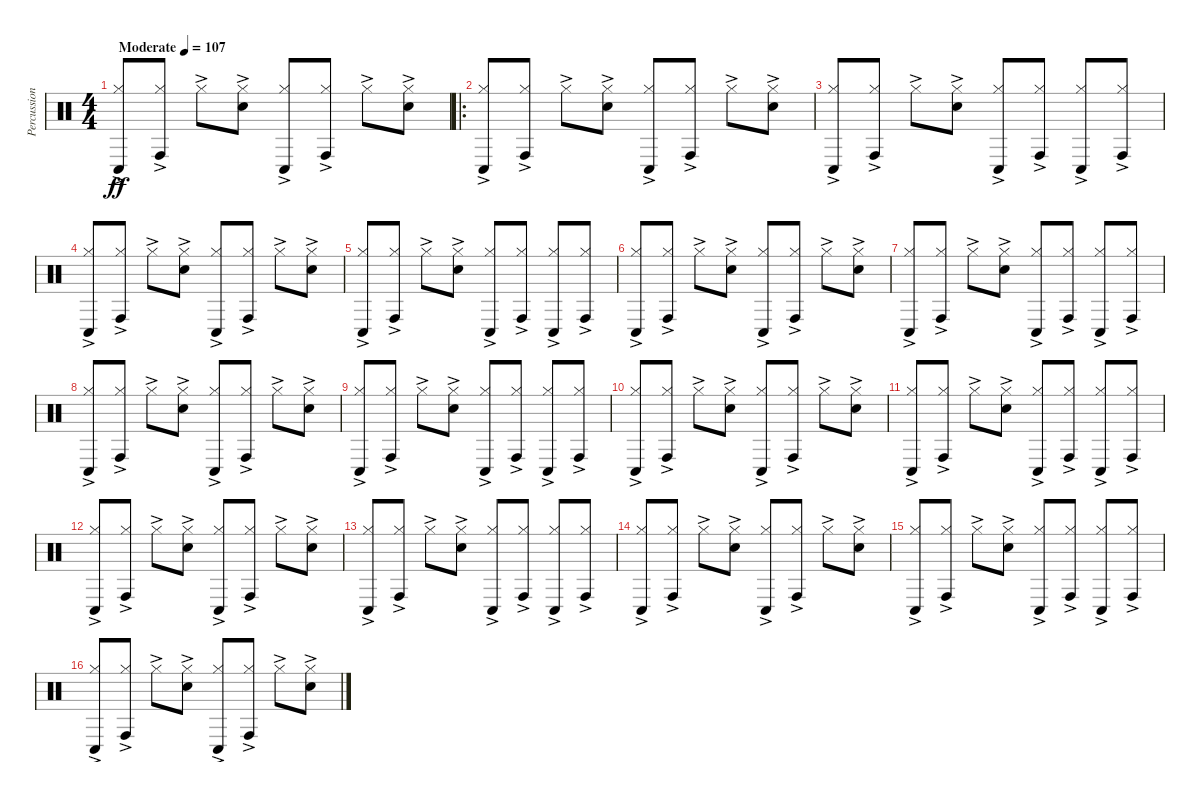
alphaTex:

\track ("Percussion" "Percussion") {instrument percussion}
\staff {score}
\articulation defaults
\ts (4 4)
\tempo (107 "Moderate")
\clef neutral
\ks c
("Hi-Hat (closed)"{ac} "Conga low (hit)"{ac}).8{dy ff} ("Hi-Hat (closed)"{ac} "Conga high (hit)"{ac}).8 "Hi-Hat (closed)"{ac}.8 ("Hi-Hat (closed)"{ac} "Hand Clap (hit)"{ac}).8 ("Hi-Hat (closed)"{ac} "Conga low (hit)"{ac}).8 ("Hi-Hat (closed)"{ac} "Conga high (hit)"{ac}).8 "Hi-Hat (closed)"{ac}.8 ("Hi-Hat (closed)"{ac} "Hand Clap (hit)"{ac}).8 |
\ro
("Hi-Hat (closed)"{ac} "Conga low (hit)"{ac}).8 ("Hi-Hat (closed)"{ac} "Conga high (hit)"{ac}).8 "Hi-Hat (closed)"{ac}.8 ("Hi-Hat (closed)"{ac} "Hand Clap (hit)"{ac}).8 ("Hi-Hat (closed)"{ac} "Conga low (hit)"{ac}).8 ("Hi-Hat (closed)"{ac} "Conga high (hit)"{ac}).8 "Hi-Hat (closed)"{ac}.8 ("Hi-Hat (closed)"{ac} "Hand Clap (hit)"{ac}).8 |
("Hi-Hat (closed)"{ac} "Conga low (hit)"{ac}).8 ("Hi-Hat (closed)"{ac} "Conga high (hit)"{ac}).8 "Hi-Hat (closed)"{ac}.8 ("Hi-Hat (closed)"{ac} "Hand Clap (hit)"{ac}).8 ("Hi-Hat (closed)"{ac} "Conga low (hit)"{ac}).8 ("Hi-Hat (closed)"{ac} "Conga high (hit)"{ac}).8 ("Hi-Hat (closed)"{ac} "Conga low (hit)"{ac}).8 ("Hi-Hat (closed)"{ac} "Conga high (hit)"{ac}).8 |
("Hi-Hat (closed)"{ac} "Conga low (hit)"{ac}).8 ("Hi-Hat (closed)"{ac} "Conga high (hit)"{ac}).8 "Hi-Hat (closed)"{ac}.8 ("Hi-Hat (closed)"{ac} "Hand Clap (hit)"{ac}).8 ("Hi-Hat (closed)"{ac} "Conga low (hit)"{ac}).8 ("Hi-Hat (closed)"{ac} "Conga high (hit)"{ac}).8 "Hi-Hat (closed)"{ac}.8 ("Hi-Hat (closed)"{ac} "Hand Clap (hit)"{ac}).8 |
("Hi-Hat (closed)"{ac} "Conga low (hit)"{ac}).8 ("Hi-Hat (closed)"{ac} "Conga high (hit)"{ac}).8 "Hi-Hat (closed)"{ac}.8 ("Hi-Hat (closed)"{ac} "Hand Clap (hit)"{ac}).8 ("Hi-Hat (closed)"{ac} "Conga low (hit)"{ac}).8 ("Hi-Hat (closed)"{ac} "Conga high (hit)"{ac}).8 ("Hi-Hat (closed)"{ac} "Conga low (hit)"{ac}).8 ("Hi-Hat (closed)"{ac} "Conga high (hit)"{ac}).8 |
("Hi-Hat (closed)"{ac} "Conga low (hit)"{ac}).8 ("Hi-Hat (closed)"{ac} "Conga high (hit)"{ac}).8 "Hi-Hat (closed)"{ac}.8 ("Hi-Hat (closed)"{ac} "Hand Clap (hit)"{ac}).8 ("Hi-Hat (closed)"{ac} "Conga low (hit)"{ac}).8 ("Hi-Hat (closed)"{ac} "Conga high (hit)"{ac}).8 "Hi-Hat (closed)"{ac}.8 ("Hi-Hat (closed)"{ac} "Hand Clap (hit)"{ac}).8 |
("Hi-Hat (closed)"{ac} "Conga low (hit)"{ac}).8 ("Hi-Hat (closed)"{ac} "Conga high (hit)"{ac}).8 "Hi-Hat (closed)"{ac}.8 ("Hi-Hat (closed)"{ac} "Hand Clap (hit)"{ac}).8 ("Hi-Hat (closed)"{ac} "Conga low (hit)"{ac}).8 ("Hi-Hat (closed)"{ac} "Conga high (hit)"{ac}).8 ("Hi-Hat (closed)"{ac} "Conga low (hit)"{ac}).8 ("Hi-Hat (closed)"{ac} "Conga high (hit)"{ac}).8 |
("Hi-Hat (closed)"{ac} "Conga low (hit)"{ac}).8 ("Hi-Hat (closed)"{ac} "Conga high (hit)"{ac}).8 "Hi-Hat (closed)"{ac}.8 ("Hi-Hat (closed)"{ac} "Hand Clap (hit)"{ac}).8 ("Hi-Hat (closed)"{ac} "Conga low (hit)"{ac}).8 ("Hi-Hat (closed)"{ac} "Conga high (hit)"{ac}).8 "Hi-Hat (closed)"{ac}.8 ("Hi-Hat (closed)"{ac} "Hand Clap (hit)"{ac}).8 |
("Hi-Hat (closed)"{ac} "Conga low (hit)"{ac}).8 ("Hi-Hat (closed)"{ac} "Conga high (hit)"{ac}).8 "Hi-Hat (closed)"{ac}.8 ("Hi-Hat (closed)"{ac} "Hand Clap (hit)"{ac}).8 ("Hi-Hat (closed)"{ac} "Conga low (hit)"{ac}).8 ("Hi-Hat (closed)"{ac} "Conga high (hit)"{ac}).8 ("Hi-Hat (closed)"{ac} "Conga low (hit)"{ac}).8 ("Hi-Hat (closed)"{ac} "Conga high (hit)"{ac}).8 |
("Hi-Hat (closed)"{ac} "Conga low (hit)"{ac}).8 ("Hi-Hat (closed)"{ac} "Conga high (hit)"{ac}).8 "Hi-Hat (closed)"{ac}.8 ("Hi-Hat (closed)"{ac} "Hand Clap (hit)"{ac}).8 ("Hi-Hat (closed)"{ac} "Conga low (hit)"{ac}).8 ("Hi-Hat (closed)"{ac} "Conga high (hit)"{ac}).8 "Hi-Hat (closed)"{ac}.8 ("Hi-Hat (closed)"{ac} "Hand Clap (hit)"{ac}).8 |
("Hi-Hat (closed)"{ac} "Conga low (hit)"{ac}).8 ("Hi-Hat (closed)"{ac} "Conga high (hit)"{ac}).8 "Hi-Hat (closed)"{ac}.8 ("Hi-Hat (closed)"{ac} "Hand Clap (hit)"{ac}).8 ("Hi-Hat (closed)"{ac} "Conga low (hit)"{ac}).8 ("Hi-Hat (closed)"{ac} "Conga high (hit)"{ac}).8 ("Hi-Hat (closed)"{ac} "Conga low (hit)"{ac}).8 ("Hi-Hat (closed)"{ac} "Conga high (hit)"{ac}).8 |
("Hi-Hat (closed)"{ac} "Conga low (hit)"{ac}).8 ("Hi-Hat (closed)"{ac} "Conga high (hit)"{ac}).8 "Hi-Hat (closed)"{ac}.8 ("Hi-Hat (closed)"{ac} "Hand Clap (hit)"{ac}).8 ("Hi-Hat (closed)"{ac} "Conga low (hit)"{ac}).8 ("Hi-Hat (closed)"{ac} "Conga high (hit)"{ac}).8 "Hi-Hat (closed)"{ac}.8 ("Hi-Hat (closed)"{ac} "Hand Clap (hit)"{ac}).8 |
("Hi-Hat (closed)"{ac} "Conga low (hit)"{ac}).8 ("Hi-Hat (closed)"{ac} "Conga high (hit)"{ac}).8 "Hi-Hat (closed)"{ac}.8 ("Hi-Hat (closed)"{ac} "Hand Clap (hit)"{ac}).8 ("Hi-Hat (closed)"{ac} "Conga low (hit)"{ac}).8 ("Hi-Hat (closed)"{ac} "Conga high (hit)"{ac}).8 ("Hi-Hat (closed)"{ac} "Conga low (hit)"{ac}).8 ("Hi-Hat (closed)"{ac} "Conga high (hit)"{ac}).8 |
("Hi-Hat (closed)"{ac} "Conga low (hit)"{ac}).8 ("Hi-Hat (closed)"{ac} "Conga high (hit)"{ac}).8 "Hi-Hat (closed)"{ac}.8 ("Hi-Hat (closed)"{ac} "Hand Clap (hit)"{ac}).8 ("Hi-Hat (closed)"{ac} "Conga low (hit)"{ac}).8 ("Hi-Hat (closed)"{ac} "Conga high (hit)"{ac}).8 "Hi-Hat (closed)"{ac}.8 ("Hi-Hat (closed)"{ac} "Hand Clap (hit)"{ac}).8 |
("Hi-Hat (closed)"{ac} "Conga low (hit)"{ac}).8 ("Hi-Hat (closed)"{ac} "Conga high (hit)"{ac}).8 "Hi-Hat (closed)"{ac}.8 ("Hi-Hat (closed)"{ac} "Hand Clap (hit)"{ac}).8 ("Hi-Hat (closed)"{ac} "Conga low (hit)"{ac}).8 ("Hi-Hat (closed)"{ac} "Conga high (hit)"{ac}).8 ("Hi-Hat (closed)"{ac} "Conga low (hit)"{ac}).8 ("Hi-Hat (closed)"{ac} "Conga high (hit)"{ac}).8 |
("Hi-Hat (closed)"{ac} "Conga low (hit)"{ac}).8 ("Hi-Hat (closed)"{ac} "Conga high (hit)"{ac}).8 "Hi-Hat (closed)"{ac}.8 ("Hi-Hat (closed)"{ac} "Hand Clap (hit)"{ac}).8 ("Hi-Hat (closed)"{ac} "Conga low (hit)"{ac}).8 ("Hi-Hat (closed)"{ac} "Conga high (hit)"{ac}).8 "Hi-Hat (closed)"{ac}.8 ("Hi-Hat (closed)"{ac} "Hand Clap (hit)"{ac}).8
